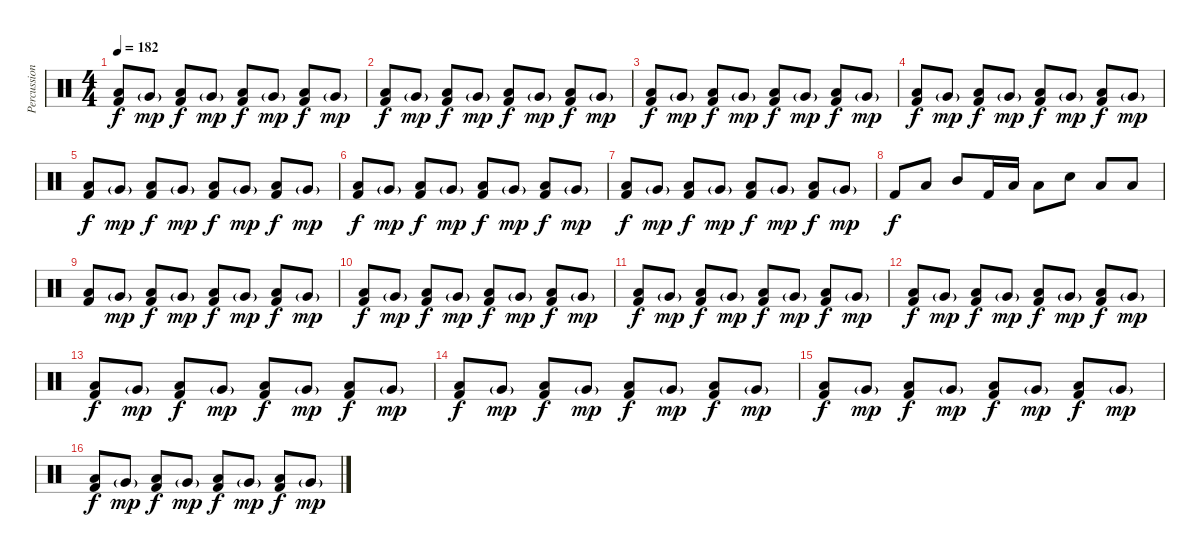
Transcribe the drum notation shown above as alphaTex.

\track ("Percussion" "Percussion") {instrument percussion}
\staff {score}
\articulation defaults
\ts (4 4)
\tempo 182
\clef neutral
\ks c
("Low Floor Tom (hit)" "Kick (hit) 2").8{dy f} "Very Low Tom (hit)"{g}.8{dy mp} ("Low Floor Tom (hit)" "Kick (hit) 2").8{dy f} "Very Low Tom (hit)"{g}.8{dy mp} ("Low Floor Tom (hit)" "Kick (hit) 2").8{dy f} "Very Low Tom (hit)"{g}.8{dy mp} ("Low Floor Tom (hit)" "Kick (hit) 2").8{dy f} "Very Low Tom (hit)"{g}.8{dy mp} |
("Low Floor Tom (hit)" "Kick (hit) 2").8{dy f} "Very Low Tom (hit)"{g}.8{dy mp} ("Low Floor Tom (hit)" "Kick (hit) 2").8{dy f} "Very Low Tom (hit)"{g}.8{dy mp} ("Low Floor Tom (hit)" "Kick (hit) 2").8{dy f} "Very Low Tom (hit)"{g}.8{dy mp} ("Low Floor Tom (hit)" "Kick (hit) 2").8{dy f} "Very Low Tom (hit)"{g}.8{dy mp} |
("Low Floor Tom (hit)" "Kick (hit) 2").8{dy f} "Very Low Tom (hit)"{g}.8{dy mp} ("Low Floor Tom (hit)" "Kick (hit) 2").8{dy f} "Very Low Tom (hit)"{g}.8{dy mp} ("Low Floor Tom (hit)" "Kick (hit) 2").8{dy f} "Very Low Tom (hit)"{g}.8{dy mp} ("Low Floor Tom (hit)" "Kick (hit) 2").8{dy f} "Very Low Tom (hit)"{g}.8{dy mp} |
("Low Floor Tom (hit)" "Kick (hit) 2").8{dy f} "Very Low Tom (hit)"{g}.8{dy mp} ("Low Floor Tom (hit)" "Kick (hit) 2").8{dy f} "Very Low Tom (hit)"{g}.8{dy mp} ("Low Floor Tom (hit)" "Kick (hit) 2").8{dy f} "Very Low Tom (hit)"{g}.8{dy mp} ("Low Floor Tom (hit)" "Kick (hit) 2").8{dy f} "Very Low Tom (hit)"{g}.8{dy mp} |
("Low Floor Tom (hit)" "Kick (hit) 2").8{dy f} "Very Low Tom (hit)"{g}.8{dy mp} ("Low Floor Tom (hit)" "Kick (hit) 2").8{dy f} "Very Low Tom (hit)"{g}.8{dy mp} ("Low Floor Tom (hit)" "Kick (hit) 2").8{dy f} "Very Low Tom (hit)"{g}.8{dy mp} ("Low Floor Tom (hit)" "Kick (hit) 2").8{dy f} "Very Low Tom (hit)"{g}.8{dy mp} |
("Low Floor Tom (hit)" "Kick (hit) 2").8{dy f} "Very Low Tom (hit)"{g}.8{dy mp} ("Low Floor Tom (hit)" "Kick (hit) 2").8{dy f} "Very Low Tom (hit)"{g}.8{dy mp} ("Low Floor Tom (hit)" "Kick (hit) 2").8{dy f} "Very Low Tom (hit)"{g}.8{dy mp} ("Low Floor Tom (hit)" "Kick (hit) 2").8{dy f} "Very Low Tom (hit)"{g}.8{dy mp} |
("Low Floor Tom (hit)" "Kick (hit) 2").8{dy f} "Very Low Tom (hit)"{g}.8{dy mp} ("Low Floor Tom (hit)" "Kick (hit) 2").8{dy f} "Very Low Tom (hit)"{g}.8{dy mp} ("Low Floor Tom (hit)" "Kick (hit) 2").8{dy f} "Very Low Tom (hit)"{g}.8{dy mp} ("Low Floor Tom (hit)" "Kick (hit) 2").8{dy f} "Very Low Tom (hit)"{g}.8{dy mp} |
"Kick (hit) 2".8{dy f} "Low Tom (hit)".8 "Mid Tom (hit)".8 "Kick (hit) 2".16 "Low Tom (hit)".16 "Low Tom (hit)".8 "Snare (hit) 2".8 "Low Tom (hit)".8 "Low Floor Tom (hit)".8 |
("Low Floor Tom (hit)" "Kick (hit) 2").8 "Very Low Tom (hit)"{g}.8{dy mp} ("Low Floor Tom (hit)" "Kick (hit) 2").8{dy f} "Very Low Tom (hit)"{g}.8{dy mp} ("Low Floor Tom (hit)" "Kick (hit) 2").8{dy f} "Very Low Tom (hit)"{g}.8{dy mp} ("Low Floor Tom (hit)" "Kick (hit) 2").8{dy f} "Very Low Tom (hit)"{g}.8{dy mp} |
("Low Floor Tom (hit)" "Kick (hit) 2").8{dy f} "Very Low Tom (hit)"{g}.8{dy mp} ("Low Floor Tom (hit)" "Kick (hit) 2").8{dy f} "Very Low Tom (hit)"{g}.8{dy mp} ("Low Floor Tom (hit)" "Kick (hit) 2").8{dy f} "Very Low Tom (hit)"{g}.8{dy mp} ("Low Floor Tom (hit)" "Kick (hit) 2").8{dy f} "Very Low Tom (hit)"{g}.8{dy mp} |
("Low Floor Tom (hit)" "Kick (hit) 2").8{dy f} "Very Low Tom (hit)"{g}.8{dy mp} ("Low Floor Tom (hit)" "Kick (hit) 2").8{dy f} "Very Low Tom (hit)"{g}.8{dy mp} ("Low Floor Tom (hit)" "Kick (hit) 2").8{dy f} "Very Low Tom (hit)"{g}.8{dy mp} ("Low Floor Tom (hit)" "Kick (hit) 2").8{dy f} "Very Low Tom (hit)"{g}.8{dy mp} |
("Low Floor Tom (hit)" "Kick (hit) 2").8{dy f} "Very Low Tom (hit)"{g}.8{dy mp} ("Low Floor Tom (hit)" "Kick (hit) 2").8{dy f} "Very Low Tom (hit)"{g}.8{dy mp} ("Low Floor Tom (hit)" "Kick (hit) 2").8{dy f} "Very Low Tom (hit)"{g}.8{dy mp} ("Low Floor Tom (hit)" "Kick (hit) 2").8{dy f} "Very Low Tom (hit)"{g}.8{dy mp} |
("Low Floor Tom (hit)" "Kick (hit) 2").8{dy f} "Very Low Tom (hit)"{g}.8{dy mp} ("Low Floor Tom (hit)" "Kick (hit) 2").8{dy f} "Very Low Tom (hit)"{g}.8{dy mp} ("Low Floor Tom (hit)" "Kick (hit) 2").8{dy f} "Very Low Tom (hit)"{g}.8{dy mp} ("Low Floor Tom (hit)" "Kick (hit) 2").8{dy f} "Very Low Tom (hit)"{g}.8{dy mp} |
("Low Floor Tom (hit)" "Kick (hit) 2").8{dy f} "Very Low Tom (hit)"{g}.8{dy mp} ("Low Floor Tom (hit)" "Kick (hit) 2").8{dy f} "Very Low Tom (hit)"{g}.8{dy mp} ("Low Floor Tom (hit)" "Kick (hit) 2").8{dy f} "Very Low Tom (hit)"{g}.8{dy mp} ("Low Floor Tom (hit)" "Kick (hit) 2").8{dy f} "Very Low Tom (hit)"{g}.8{dy mp} |
("Low Floor Tom (hit)" "Kick (hit) 2").8{dy f} "Very Low Tom (hit)"{g}.8{dy mp} ("Low Floor Tom (hit)" "Kick (hit) 2").8{dy f} "Very Low Tom (hit)"{g}.8{dy mp} ("Low Floor Tom (hit)" "Kick (hit) 2").8{dy f} "Very Low Tom (hit)"{g}.8{dy mp} ("Low Floor Tom (hit)" "Kick (hit) 2").8{dy f} "Very Low Tom (hit)"{g}.8{dy mp} |
("Low Floor Tom (hit)" "Kick (hit) 2").8{dy f} "Very Low Tom (hit)"{g}.8{dy mp} ("Low Floor Tom (hit)" "Kick (hit) 2").8{dy f} "Very Low Tom (hit)"{g}.8{dy mp} ("Low Floor Tom (hit)" "Kick (hit) 2").8{dy f} "Very Low Tom (hit)"{g}.8{dy mp} ("Low Floor Tom (hit)" "Kick (hit) 2").8{dy f} "Very Low Tom (hit)"{g}.8{dy mp}
